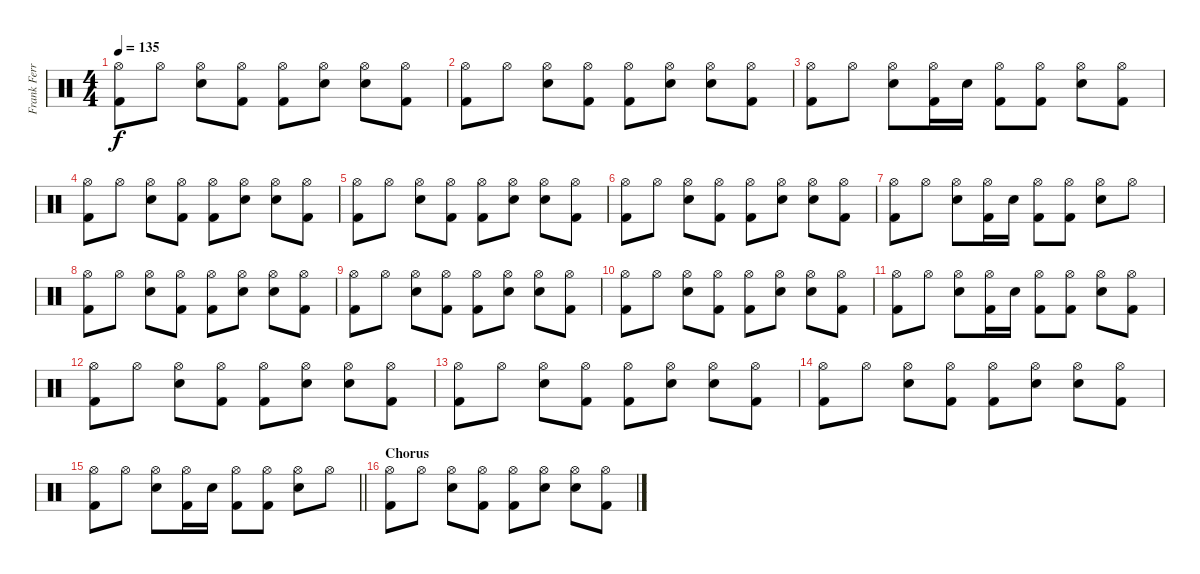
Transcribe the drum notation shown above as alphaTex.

\track ("Frank Ferrer" "Frank Ferr") {instrument percussion}
\staff {score}
\articulation defaults
\ts (4 4)
\tempo 135
\clef neutral
\ks c
("Hi-Hat (open)" "Kick (hit) 2").8{dy f} "Hi-Hat (open)".8 ("Hi-Hat (open)" "Electric Snare (hit)").8 ("Hi-Hat (open)" "Kick (hit) 2").8 ("Hi-Hat (open)" "Kick (hit) 2").8 ("Hi-Hat (open)" "Electric Snare (hit)").8 ("Hi-Hat (open)" "Electric Snare (hit)").8 ("Hi-Hat (open)" "Kick (hit) 2").8 |
("Hi-Hat (open)" "Kick (hit) 2").8 "Hi-Hat (open)".8 ("Hi-Hat (open)" "Electric Snare (hit)").8 ("Hi-Hat (open)" "Kick (hit) 2").8 ("Hi-Hat (open)" "Kick (hit) 2").8 ("Hi-Hat (open)" "Electric Snare (hit)").8 ("Hi-Hat (open)" "Electric Snare (hit)").8 ("Hi-Hat (open)" "Kick (hit) 2").8 |
("Hi-Hat (open)" "Kick (hit) 2").8 "Hi-Hat (open)".8 ("Hi-Hat (open)" "Electric Snare (hit)").8 ("Hi-Hat (open)" "Kick (hit) 2").16 "Electric Snare (hit)".16 ("Hi-Hat (open)" "Kick (hit) 2").8 ("Hi-Hat (open)" "Kick (hit) 2").8 ("Hi-Hat (open)" "Electric Snare (hit)").8 ("Hi-Hat (open)" "Kick (hit) 2").8 |
("Hi-Hat (open)" "Kick (hit) 2").8 "Hi-Hat (open)".8 ("Hi-Hat (open)" "Electric Snare (hit)").8 ("Hi-Hat (open)" "Kick (hit) 2").8 ("Hi-Hat (open)" "Kick (hit) 2").8 ("Hi-Hat (open)" "Electric Snare (hit)").8 ("Hi-Hat (open)" "Electric Snare (hit)").8 ("Hi-Hat (open)" "Kick (hit) 2").8 |
("Hi-Hat (open)" "Kick (hit) 2").8 "Hi-Hat (open)".8 ("Hi-Hat (open)" "Electric Snare (hit)").8 ("Hi-Hat (open)" "Kick (hit) 2").8 ("Hi-Hat (open)" "Kick (hit) 2").8 ("Hi-Hat (open)" "Electric Snare (hit)").8 ("Hi-Hat (open)" "Electric Snare (hit)").8 ("Hi-Hat (open)" "Kick (hit) 2").8 |
("Hi-Hat (open)" "Kick (hit) 2").8 "Hi-Hat (open)".8 ("Hi-Hat (open)" "Electric Snare (hit)").8 ("Hi-Hat (open)" "Kick (hit) 2").8 ("Hi-Hat (open)" "Kick (hit) 2").8 ("Hi-Hat (open)" "Electric Snare (hit)").8 ("Hi-Hat (open)" "Electric Snare (hit)").8 ("Hi-Hat (open)" "Kick (hit) 2").8 |
("Hi-Hat (open)" "Kick (hit) 2").8 "Hi-Hat (open)".8 ("Hi-Hat (open)" "Electric Snare (hit)").8 ("Hi-Hat (open)" "Kick (hit) 2").16 "Electric Snare (hit)".16 ("Hi-Hat (open)" "Kick (hit) 2").8 ("Hi-Hat (open)" "Kick (hit) 2").8 ("Hi-Hat (open)" "Electric Snare (hit)").8 "Hi-Hat (open)".8 |
("Hi-Hat (open)" "Kick (hit) 2").8 "Hi-Hat (open)".8 ("Hi-Hat (open)" "Electric Snare (hit)").8 ("Hi-Hat (open)" "Kick (hit) 2").8 ("Hi-Hat (open)" "Kick (hit) 2").8 ("Hi-Hat (open)" "Electric Snare (hit)").8 ("Hi-Hat (open)" "Electric Snare (hit)").8 ("Hi-Hat (open)" "Kick (hit) 2").8 |
("Hi-Hat (open)" "Kick (hit) 2").8 "Hi-Hat (open)".8 ("Hi-Hat (open)" "Electric Snare (hit)").8 ("Hi-Hat (open)" "Kick (hit) 2").8 ("Hi-Hat (open)" "Kick (hit) 2").8 ("Hi-Hat (open)" "Electric Snare (hit)").8 ("Hi-Hat (open)" "Electric Snare (hit)").8 ("Hi-Hat (open)" "Kick (hit) 2").8 |
("Hi-Hat (open)" "Kick (hit) 2").8 "Hi-Hat (open)".8 ("Hi-Hat (open)" "Electric Snare (hit)").8 ("Hi-Hat (open)" "Kick (hit) 2").8 ("Hi-Hat (open)" "Kick (hit) 2").8 ("Hi-Hat (open)" "Electric Snare (hit)").8 ("Hi-Hat (open)" "Electric Snare (hit)").8 ("Hi-Hat (open)" "Kick (hit) 2").8 |
("Hi-Hat (open)" "Kick (hit) 2").8 "Hi-Hat (open)".8 ("Hi-Hat (open)" "Electric Snare (hit)").8 ("Hi-Hat (open)" "Kick (hit) 2").16 "Electric Snare (hit)".16 ("Hi-Hat (open)" "Kick (hit) 2").8 ("Hi-Hat (open)" "Kick (hit) 2").8 ("Hi-Hat (open)" "Electric Snare (hit)").8 ("Hi-Hat (open)" "Kick (hit) 2").8 |
("Hi-Hat (open)" "Kick (hit) 2").8 "Hi-Hat (open)".8 ("Hi-Hat (open)" "Electric Snare (hit)").8 ("Hi-Hat (open)" "Kick (hit) 2").8 ("Hi-Hat (open)" "Kick (hit) 2").8 ("Hi-Hat (open)" "Electric Snare (hit)").8 ("Hi-Hat (open)" "Electric Snare (hit)").8 ("Hi-Hat (open)" "Kick (hit) 2").8 |
("Hi-Hat (open)" "Kick (hit) 2").8 "Hi-Hat (open)".8 ("Hi-Hat (open)" "Electric Snare (hit)").8 ("Hi-Hat (open)" "Kick (hit) 2").8 ("Hi-Hat (open)" "Kick (hit) 2").8 ("Hi-Hat (open)" "Electric Snare (hit)").8 ("Hi-Hat (open)" "Electric Snare (hit)").8 ("Hi-Hat (open)" "Kick (hit) 2").8 |
("Hi-Hat (open)" "Kick (hit) 2").8 "Hi-Hat (open)".8 ("Hi-Hat (open)" "Electric Snare (hit)").8 ("Hi-Hat (open)" "Kick (hit) 2").8 ("Hi-Hat (open)" "Kick (hit) 2").8 ("Hi-Hat (open)" "Electric Snare (hit)").8 ("Hi-Hat (open)" "Electric Snare (hit)").8 ("Hi-Hat (open)" "Kick (hit) 2").8 |
\barLineRight lightlight
("Hi-Hat (open)" "Kick (hit) 2").8 "Hi-Hat (open)".8 ("Hi-Hat (open)" "Electric Snare (hit)").8 ("Hi-Hat (open)" "Kick (hit) 2").16 "Electric Snare (hit)".16 ("Hi-Hat (open)" "Kick (hit) 2").8 ("Hi-Hat (open)" "Kick (hit) 2").8 ("Hi-Hat (open)" "Electric Snare (hit)").8 "Hi-Hat (open)".8 |
\section ("" "Chorus")
("Hi-Hat (open)" "Kick (hit) 2").8 "Hi-Hat (open)".8 ("Hi-Hat (open)" "Electric Snare (hit)").8 ("Hi-Hat (open)" "Kick (hit) 2").8 ("Hi-Hat (open)" "Kick (hit) 2").8 ("Hi-Hat (open)" "Electric Snare (hit)").8 ("Hi-Hat (open)" "Electric Snare (hit)").8 ("Hi-Hat (open)" "Kick (hit) 2").8
